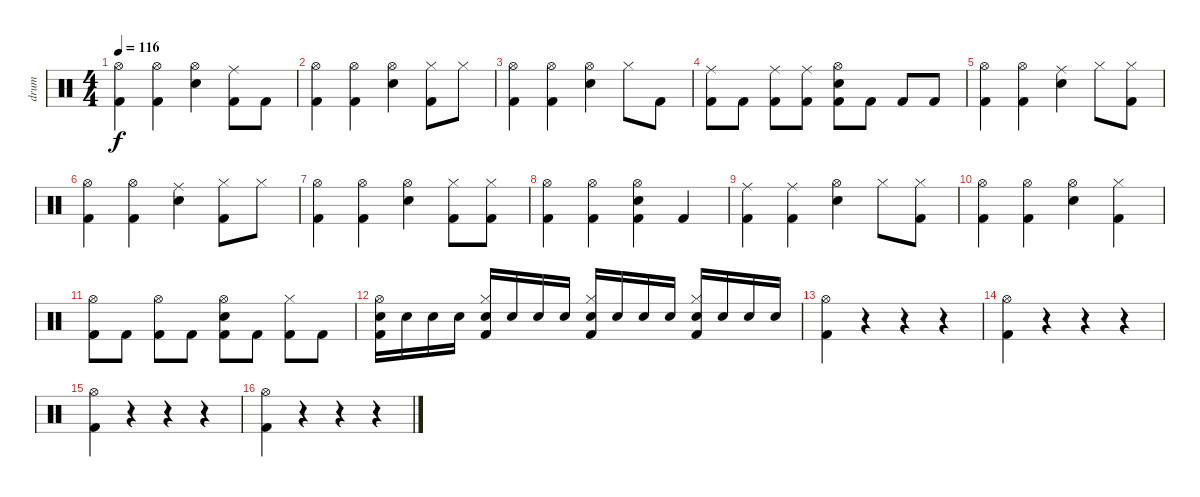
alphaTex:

\track ("drum" "drum") {instrument percussion}
\staff {score}
\articulation defaults
\ts (4 4)
\tempo 116
\clef neutral
\ks c
("Hi-Hat (open)" "Kick (hit) 2").4{dy f} ("Hi-Hat (open)" "Kick (hit) 2").4 ("Hi-Hat (open)" "Electric Snare (hit)").4 ("Ride (middle)" "Kick (hit) 2").8 "Kick (hit) 2".8 |
("Hi-Hat (open)" "Kick (hit) 2").4 ("Hi-Hat (open)" "Kick (hit) 2").4 ("Hi-Hat (open)" "Electric Snare (hit)").4 ("Hi-Hat (closed)" "Kick (hit) 2").8 "Hi-Hat (closed)".8 |
("Hi-Hat (open)" "Kick (hit) 2").4 ("Hi-Hat (open)" "Kick (hit) 2").4 ("Hi-Hat (open)" "Electric Snare (hit)").4 "Hi-Hat (closed)".8 "Kick (hit) 2".8 |
("Ride (middle)" "Kick (hit) 2").8 "Kick (hit) 2".8 ("Ride (middle)" "Kick (hit) 2").8 ("Ride (middle)" "Kick (hit) 2").8 ("Hi-Hat (open)" "Electric Snare (hit)" "Kick (hit) 2").8 "Kick (hit) 2".8 "Kick (hit) 2".8 "Kick (hit) 2".8 |
("Hi-Hat (open)" "Kick (hit) 2").4 ("Hi-Hat (open)" "Kick (hit) 2").4 ("Ride (middle)" "Electric Snare (hit)").4 "Hi-Hat (closed)".8 ("Hi-Hat (closed)" "Kick (hit) 2").8 |
("Hi-Hat (open)" "Kick (hit) 2").4 ("Hi-Hat (open)" "Kick (hit) 2").4 ("Ride (middle)" "Electric Snare (hit)").4 ("Hi-Hat (closed)" "Kick (hit) 2").8 "Hi-Hat (closed)".8 |
("Hi-Hat (open)" "Kick (hit) 2").4 ("Hi-Hat (open)" "Kick (hit) 2").4 ("Hi-Hat (open)" "Electric Snare (hit)").4 ("Hi-Hat (closed)" "Kick (hit) 2").8 ("Hi-Hat (closed)" "Kick (hit) 2").8 |
("Hi-Hat (open)" "Kick (hit) 2").4 ("Hi-Hat (open)" "Kick (hit) 2").4 ("Hi-Hat (open)" "Electric Snare (hit)" "Kick (hit) 2").4 "Kick (hit) 2".4 |
("Ride (middle)" "Kick (hit) 2").4 ("Ride (middle)" "Kick (hit) 2").4 ("Hi-Hat (open)" "Electric Snare (hit)").4 "Hi-Hat (closed)".8 ("Hi-Hat (closed)" "Kick (hit) 2").8 |
("Hi-Hat (open)" "Kick (hit) 2").4 ("Hi-Hat (open)" "Kick (hit) 2").4 ("Hi-Hat (open)" "Electric Snare (hit)").4 ("Hi-Hat (closed)" "Kick (hit) 2").4 |
("Hi-Hat (open)" "Kick (hit) 2").8 "Kick (hit) 2".8 ("Hi-Hat (open)" "Kick (hit) 2").8 "Kick (hit) 2".8 ("Hi-Hat (open)" "Electric Snare (hit)" "Kick (hit) 2").8 "Kick (hit) 2".8 ("Hi-Hat (closed)" "Kick (hit) 2").8 "Kick (hit) 2".8 |
("Hi-Hat (open)" "Snare (hit) 2" "Kick (hit) 2").16 "Snare (hit) 2".16 "Snare (hit) 2".16 "Snare (hit) 2".16 ("Hi-Hat (closed)" "Snare (hit) 2" "Kick (hit) 2").16 "Snare (hit) 2".16 "Snare (hit) 2".16 "Snare (hit) 2".16 ("Hi-Hat (closed)" "Snare (hit) 2" "Kick (hit) 2").16 "Snare (hit) 2".16 "Snare (hit) 2".16 "Snare (hit) 2".16 ("Hi-Hat (closed)" "Snare (hit) 2" "Kick (hit) 2").16 "Snare (hit) 2".16 "Snare (hit) 2".16 "Snare (hit) 2".16 |
("Hi-Hat (open)" "Kick (hit) 2").4 r.4 r.4 r.4 |
("Hi-Hat (open)" "Kick (hit) 2").4 r.4 r.4 r.4 |
("Hi-Hat (open)" "Kick (hit) 2").4 r.4 r.4 r.4 |
("Hi-Hat (open)" "Kick (hit) 2").4 r.4 r.4 r.4
